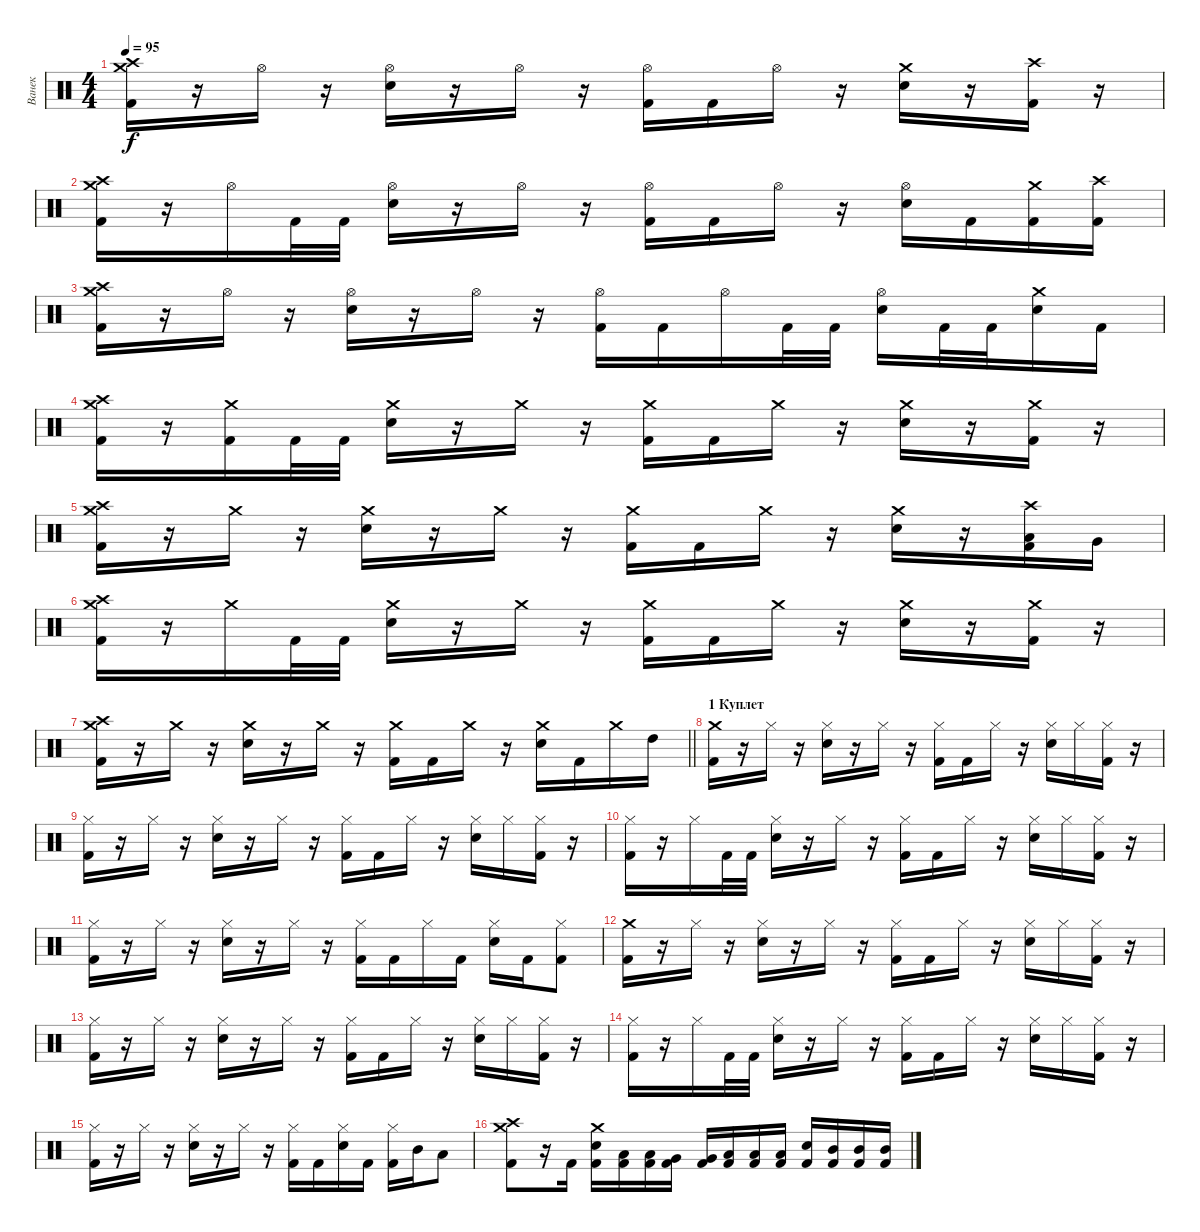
\track ("Ванек" "Ванек") {instrument percussion}
\staff {score}
\articulation defaults
\ts (4 4)
\tempo 95
\clef neutral
\ks c
("Crash high (hit)" "Crash medium (hit)" "Kick (hit) 2").16{dy f} r.16 "Hi-Hat (open)".16 r.16 ("Hi-Hat (open)" "Snare (hit) 2").16 r.16 "Hi-Hat (open)".16 r.16 ("Hi-Hat (open)" "Kick (hit) 2").16 "Kick (hit) 2".16 "Hi-Hat (open)".16 r.16 ("Crash medium (hit)" "Snare (hit) 2").16 r.16 ("Crash high (hit)" "Kick (hit) 2").16 r.16 |
("Crash high (hit)" "Crash medium (hit)" "Kick (hit) 2").16 r.16 "Hi-Hat (open)".16 "Kick (hit) 2".32 "Kick (hit) 2".32 ("Hi-Hat (open)" "Snare (hit) 2").16 r.16 "Hi-Hat (open)".16 r.16 ("Hi-Hat (open)" "Kick (hit) 2").16 "Kick (hit) 2".16 "Hi-Hat (open)".16 r.16 ("Hi-Hat (open)" "Snare (hit) 2").16 "Kick (hit) 2".16 ("Crash medium (hit)" "Kick (hit) 2").16 ("Crash high (hit)" "Kick (hit) 2").16 |
("Crash high (hit)" "Crash medium (hit)" "Kick (hit) 2").16 r.16 "Hi-Hat (open)".16 r.16 ("Hi-Hat (open)" "Snare (hit) 2").16 r.16 "Hi-Hat (open)".16 r.16 ("Hi-Hat (open)" "Kick (hit) 2").16 "Kick (hit) 2".16 "Hi-Hat (open)".16 "Kick (hit) 2".32 "Kick (hit) 2".32 ("Hi-Hat (open)" "Snare (hit) 2").16 "Kick (hit) 2".32 "Kick (hit) 2".32 ("Crash medium (hit)" "Snare (hit) 2").16 "Kick (hit) 2".16 |
("Crash high (hit)" "Crash medium (hit)" "Kick (hit) 2").16 r.16 ("Crash medium (hit)" "Kick (hit) 2").16 "Kick (hit) 2".32 "Kick (hit) 2".32 ("Crash medium (hit)" "Snare (hit) 2").16 r.16 "Crash medium (hit)".16 r.16 ("Crash medium (hit)" "Kick (hit) 2").16 "Kick (hit) 2".16 "Crash medium (hit)".16 r.16 ("Crash medium (hit)" "Snare (hit) 2").16 r.16 ("Crash medium (hit)" "Kick (hit) 2").16 r.16 |
("Crash high (hit)" "Crash medium (hit)" "Kick (hit) 2").16 r.16 "Crash medium (hit)".16 r.16 ("Crash medium (hit)" "Snare (hit) 2").16 r.16 "Crash medium (hit)".16 r.16 ("Crash medium (hit)" "Kick (hit) 2").16 "Kick (hit) 2".16 "Crash medium (hit)".16 r.16 ("Crash medium (hit)" "Snare (hit) 2").16 r.16 ("Crash high (hit)" "Low Floor Tom (hit)" "Kick (hit) 2").16 "Very Low Tom (hit)".16 |
("Crash high (hit)" "Crash medium (hit)" "Kick (hit) 2").16 r.16 "Crash medium (hit)".16 "Kick (hit) 2".32 "Kick (hit) 2".32 ("Crash medium (hit)" "Snare (hit) 2").16 r.16 "Crash medium (hit)".16 r.16 ("Crash medium (hit)" "Kick (hit) 2").16 "Kick (hit) 2".16 "Crash medium (hit)".16 r.16 ("Crash medium (hit)" "Snare (hit) 2").16 r.16 ("Crash medium (hit)" "Kick (hit) 2").16 r.16 |
\barLineRight lightlight
("Crash high (hit)" "Crash medium (hit)" "Kick (hit) 2").16 r.16 "Crash medium (hit)".16 r.16 ("Crash medium (hit)" "Snare (hit) 2").16 r.16 "Crash medium (hit)".16 r.16 ("Crash medium (hit)" "Kick (hit) 2").16 "Kick (hit) 2".16 "Crash medium (hit)".16 r.16 ("Crash medium (hit)" "Snare (hit) 2").16 "Kick (hit) 2".16 "Crash medium (hit)".16 "High Tom (hit)".16 |
\section ("" "1 Куплет")
("Crash medium (hit)" "Kick (hit) 2").16 r.16 "Hi-Hat (closed)".16 r.16 ("Hi-Hat (closed)" "Snare (hit) 2").16 r.16 "Hi-Hat (closed)".16 r.16 ("Hi-Hat (closed)" "Kick (hit) 2").16 "Kick (hit) 2".16 "Hi-Hat (closed)".16 r.16 ("Hi-Hat (closed)" "Snare (hit) 2").16 "Hi-Hat (closed)".16 ("Hi-Hat (closed)" "Kick (hit) 2").16 r.16 |
("Hi-Hat (closed)" "Kick (hit) 2").16 r.16 "Hi-Hat (closed)".16 r.16 ("Hi-Hat (closed)" "Snare (hit) 2").16 r.16 "Hi-Hat (closed)".16 r.16 ("Hi-Hat (closed)" "Kick (hit) 2").16 "Kick (hit) 2".16 "Hi-Hat (closed)".16 r.16 ("Hi-Hat (closed)" "Snare (hit) 2").16 "Hi-Hat (closed)".16 ("Hi-Hat (closed)" "Kick (hit) 2").16 r.16 |
("Hi-Hat (closed)" "Kick (hit) 2").16 r.16 "Hi-Hat (closed)".16 "Kick (hit) 2".32 "Kick (hit) 2".32 ("Hi-Hat (closed)" "Snare (hit) 2").16 r.16 "Hi-Hat (closed)".16 r.16 ("Hi-Hat (closed)" "Kick (hit) 2").16 "Kick (hit) 2".16 "Hi-Hat (closed)".16 r.16 ("Hi-Hat (closed)" "Snare (hit) 2").16 "Hi-Hat (closed)".16 ("Hi-Hat (closed)" "Kick (hit) 2").16 r.16 |
("Hi-Hat (closed)" "Kick (hit) 2").16 r.16 "Hi-Hat (closed)".16 r.16 ("Hi-Hat (closed)" "Snare (hit) 2").16 r.16 "Hi-Hat (closed)".16 r.16 ("Hi-Hat (closed)" "Kick (hit) 2").16 "Kick (hit) 2".16 "Hi-Hat (closed)".16 "Kick (hit) 2".16 ("Hi-Hat (closed)" "Snare (hit) 2").16 "Kick (hit) 2".16 ("Hi-Hat (closed)" "Kick (hit) 2").8 |
("Crash medium (hit)" "Kick (hit) 2").16 r.16 "Hi-Hat (closed)".16 r.16 ("Hi-Hat (closed)" "Snare (hit) 2").16 r.16 "Hi-Hat (closed)".16 r.16 ("Hi-Hat (closed)" "Kick (hit) 2").16 "Kick (hit) 2".16 "Hi-Hat (closed)".16 r.16 ("Hi-Hat (closed)" "Snare (hit) 2").16 "Hi-Hat (closed)".16 ("Hi-Hat (closed)" "Kick (hit) 2").16 r.16 |
("Hi-Hat (closed)" "Kick (hit) 2").16 r.16 "Hi-Hat (closed)".16 r.16 ("Hi-Hat (closed)" "Snare (hit) 2").16 r.16 "Hi-Hat (closed)".16 r.16 ("Hi-Hat (closed)" "Kick (hit) 2").16 "Kick (hit) 2".16 "Hi-Hat (closed)".16 r.16 ("Hi-Hat (closed)" "Snare (hit) 2").16 "Hi-Hat (closed)".16 ("Hi-Hat (closed)" "Kick (hit) 2").16 r.16 |
("Hi-Hat (closed)" "Kick (hit) 2").16 r.16 "Hi-Hat (closed)".16 "Kick (hit) 2".32 "Kick (hit) 2".32 ("Hi-Hat (closed)" "Snare (hit) 2").16 r.16 "Hi-Hat (closed)".16 r.16 ("Hi-Hat (closed)" "Kick (hit) 2").16 "Kick (hit) 2".16 "Hi-Hat (closed)".16 r.16 ("Hi-Hat (closed)" "Snare (hit) 2").16 "Hi-Hat (closed)".16 ("Hi-Hat (closed)" "Kick (hit) 2").16 r.16 |
("Hi-Hat (closed)" "Kick (hit) 2").16 r.16 "Hi-Hat (closed)".16 r.16 ("Hi-Hat (closed)" "Snare (hit) 2").16 r.16 "Hi-Hat (closed)".16 r.16 ("Hi-Hat (closed)" "Kick (hit) 2").16 "Kick (hit) 2".16 ("Hi-Hat (closed)" "Snare (hit) 2").16 "Kick (hit) 2".16 ("Hi-Hat (closed)" "Kick (hit) 2").16 "Mid Tom (hit)".16 "Low Tom (hit)".8 |
("Crash medium (hit)" "Crash high (hit)" "Kick (hit) 2").8 r.16 "Kick (hit) 2".16 ("Crash medium (hit)" "Snare (hit) 2" "Kick (hit) 2").16 ("Low Floor Tom (hit)" "Kick (hit) 2").16 ("Low Floor Tom (hit)" "Kick (hit) 2").16 ("Very Low Tom (hit)" "Kick (hit) 2").16 ("Very Low Tom (hit)" "Kick (hit) 2").16 ("Low Tom (hit)" "Kick (hit) 2").16 ("Low Tom (hit)" "Kick (hit) 2").16 ("Low Tom (hit)" "Kick (hit) 2").16 ("Snare (hit) 2" "Kick (hit) 2").16 ("Mid Tom (hit)" "Kick (hit) 2").16 ("Mid Tom (hit)" "Kick (hit) 2").16 ("Mid Tom (hit)" "Kick (hit) 2").16
